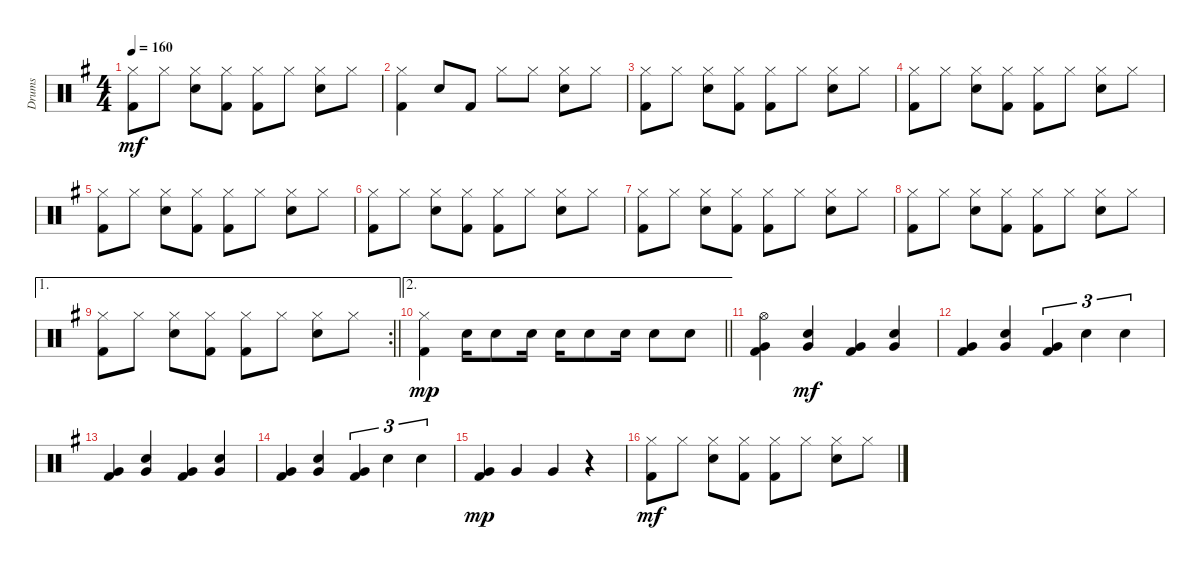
\track ("Drums" "Drums") {instrument percussion}
\staff {score}
\articulation defaults
\ts (4 4)
\tempo 160
\clef neutral
\ks g
("Kick (hit) 2" "Hi-Hat (closed)").8{dy mf} "Hi-Hat (closed)".8 ("Hi-Hat (closed)" "Snare (hit) 2").8 ("Hi-Hat (closed)" "Kick (hit) 2").8 ("Hi-Hat (closed)" "Kick (hit) 2").8 "Hi-Hat (closed)".8 ("Hi-Hat (closed)" "Snare (hit) 2").8 "Hi-Hat (closed)".8 |
("Kick (hit) 2" "Hi-Hat (closed)").4 "Snare (hit) 2".8 "Kick (hit) 2".8 "Hi-Hat (closed)".8 "Hi-Hat (closed)".8 ("Hi-Hat (closed)" "Snare (hit) 2").8 "Hi-Hat (closed)".8 |
("Kick (hit) 2" "Hi-Hat (closed)").8 "Hi-Hat (closed)".8 ("Hi-Hat (closed)" "Snare (hit) 2").8 ("Hi-Hat (closed)" "Kick (hit) 2").8 ("Hi-Hat (closed)" "Kick (hit) 2").8 "Hi-Hat (closed)".8 ("Hi-Hat (closed)" "Snare (hit) 2").8 "Hi-Hat (closed)".8 |
("Kick (hit) 2" "Hi-Hat (closed)").8 "Hi-Hat (closed)".8 ("Hi-Hat (closed)" "Snare (hit) 2").8 ("Hi-Hat (closed)" "Kick (hit) 2").8 ("Hi-Hat (closed)" "Kick (hit) 2").8 "Hi-Hat (closed)".8 ("Hi-Hat (closed)" "Snare (hit) 2").8 "Hi-Hat (closed)".8 |
("Kick (hit) 2" "Hi-Hat (closed)").8 "Hi-Hat (closed)".8 ("Hi-Hat (closed)" "Snare (hit) 2").8 ("Hi-Hat (closed)" "Kick (hit) 2").8 ("Hi-Hat (closed)" "Kick (hit) 2").8 "Hi-Hat (closed)".8 ("Hi-Hat (closed)" "Snare (hit) 2").8 "Hi-Hat (closed)".8 |
("Kick (hit) 2" "Hi-Hat (closed)").8 "Hi-Hat (closed)".8 ("Hi-Hat (closed)" "Snare (hit) 2").8 ("Hi-Hat (closed)" "Kick (hit) 2").8 ("Hi-Hat (closed)" "Kick (hit) 2").8 "Hi-Hat (closed)".8 ("Hi-Hat (closed)" "Snare (hit) 2").8 "Hi-Hat (closed)".8 |
("Kick (hit) 2" "Hi-Hat (closed)").8 "Hi-Hat (closed)".8 ("Hi-Hat (closed)" "Snare (hit) 2").8 ("Hi-Hat (closed)" "Kick (hit) 2").8 ("Hi-Hat (closed)" "Kick (hit) 2").8 "Hi-Hat (closed)".8 ("Hi-Hat (closed)" "Snare (hit) 2").8 "Hi-Hat (closed)".8 |
("Kick (hit) 2" "Hi-Hat (closed)").8 "Hi-Hat (closed)".8 ("Hi-Hat (closed)" "Snare (hit) 2").8 ("Hi-Hat (closed)" "Kick (hit) 2").8 ("Hi-Hat (closed)" "Kick (hit) 2").8 "Hi-Hat (closed)".8 ("Hi-Hat (closed)" "Snare (hit) 2").8 "Hi-Hat (closed)".8 |
\ae 1
\rc 2
\barLineRight lightlight
("Kick (hit) 2" "Hi-Hat (closed)").8 "Hi-Hat (closed)".8 ("Hi-Hat (closed)" "Snare (hit) 2").8 ("Hi-Hat (closed)" "Kick (hit) 2").8 ("Hi-Hat (closed)" "Kick (hit) 2").8 "Hi-Hat (closed)".8 ("Hi-Hat (closed)" "Snare (hit) 2").8 "Hi-Hat (closed)".8 |
\ae 2
\barLineRight lightlight
("Hi-Hat (closed)" "Kick (hit) 2").4{dy mp} "Snare (hit) 2".16 "Snare (hit) 2".8 "Snare (hit) 2".16 "Snare (hit) 2".16 "Snare (hit) 2".8 "Snare (hit) 2".16 "Snare (hit) 2".8 "Snare (hit) 2".8 |
("Very Low Tom (hit)" "Kick (hit) 2" "Hi-Hat (open)").4 ("Very Low Tom (hit)" "Snare (hit) 2").4{dy mf} ("Very Low Tom (hit)" "Kick (hit) 2").4 ("Very Low Tom (hit)" "Snare (hit) 2").4 |
("Very Low Tom (hit)" "Kick (hit) 2").4 ("Very Low Tom (hit)" "Snare (hit) 2").4 ("Very Low Tom (hit)" "Kick (hit) 2").4{tu (3 2)} "Snare (hit) 2".4{tu (3 2)} "Snare (hit) 2".4{tu (3 2)} |
("Very Low Tom (hit)" "Kick (hit) 2").4 ("Very Low Tom (hit)" "Snare (hit) 2").4 ("Very Low Tom (hit)" "Kick (hit) 2").4 ("Very Low Tom (hit)" "Snare (hit) 2").4 |
("Very Low Tom (hit)" "Kick (hit) 2").4 ("Very Low Tom (hit)" "Snare (hit) 2").4 ("Very Low Tom (hit)" "Kick (hit) 2").4{tu (3 2)} "Snare (hit) 2".4{tu (3 2)} "Snare (hit) 2".4{tu (3 2)} |
("Very Low Tom (hit)" "Kick (hit) 2").4{dy mp} "Very Low Tom (hit)".4 "Very Low Tom (hit)".4 r.4 |
("Kick (hit) 2" "Hi-Hat (closed)").8{dy mf} "Hi-Hat (closed)".8 ("Hi-Hat (closed)" "Snare (hit) 2").8 ("Hi-Hat (closed)" "Kick (hit) 2").8 ("Hi-Hat (closed)" "Kick (hit) 2").8 "Hi-Hat (closed)".8 ("Hi-Hat (closed)" "Snare (hit) 2").8 "Hi-Hat (closed)".8
